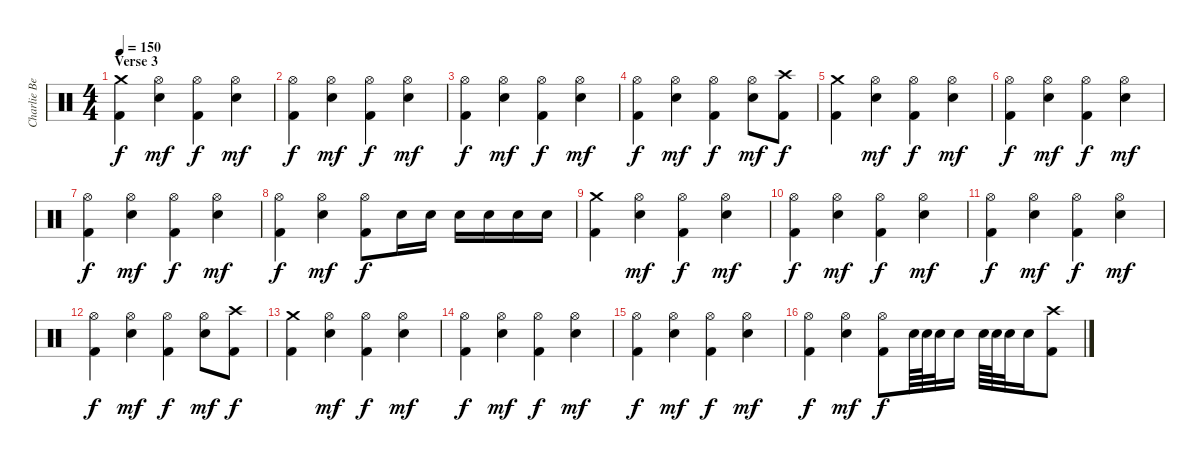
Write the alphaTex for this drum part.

\track ("Charlie Benante" "Charlie Be") {instrument percussion}
\staff {score}
\articulation defaults
\ts (4 4)
\section ("" "Verse 3")
\tempo 150
\clef neutral
\ks c
("Kick (hit) 2" "Crash medium (hit)").4{dy f} ("Hi-Hat (open)" "Snare (hit) 2").4{dy mf} ("Kick (hit) 2" "Hi-Hat (open)").4{dy f} ("Hi-Hat (open)" "Snare (hit) 2").4{dy mf} |
("Kick (hit) 2" "Hi-Hat (open)").4{dy f} ("Hi-Hat (open)" "Snare (hit) 2").4{dy mf} ("Kick (hit) 2" "Hi-Hat (open)").4{dy f} ("Hi-Hat (open)" "Snare (hit) 2").4{dy mf} |
("Kick (hit) 2" "Hi-Hat (open)").4{dy f} ("Hi-Hat (open)" "Snare (hit) 2").4{dy mf} ("Kick (hit) 2" "Hi-Hat (open)").4{dy f} ("Hi-Hat (open)" "Snare (hit) 2").4{dy mf} |
("Kick (hit) 2" "Hi-Hat (open)").4{dy f} ("Hi-Hat (open)" "Snare (hit) 2").4{dy mf} ("Kick (hit) 2" "Hi-Hat (open)").4{dy f} ("Hi-Hat (open)" "Snare (hit) 2").8{dy mf} ("Kick (hit) 2" "Crash high (hit)").8{dy f} |
("Kick (hit) 2" "Crash medium (hit)").4 ("Hi-Hat (open)" "Snare (hit) 2").4{dy mf} ("Kick (hit) 2" "Hi-Hat (open)").4{dy f} ("Hi-Hat (open)" "Snare (hit) 2").4{dy mf} |
("Kick (hit) 2" "Hi-Hat (open)").4{dy f} ("Hi-Hat (open)" "Snare (hit) 2").4{dy mf} ("Kick (hit) 2" "Hi-Hat (open)").4{dy f} ("Hi-Hat (open)" "Snare (hit) 2").4{dy mf} |
("Kick (hit) 2" "Hi-Hat (open)").4{dy f} ("Hi-Hat (open)" "Snare (hit) 2").4{dy mf} ("Kick (hit) 2" "Hi-Hat (open)").4{dy f} ("Hi-Hat (open)" "Snare (hit) 2").4{dy mf} |
("Kick (hit) 2" "Hi-Hat (open)").4{dy f} ("Hi-Hat (open)" "Snare (hit) 2").4{dy mf} ("Kick (hit) 2" "Hi-Hat (open)").8{dy f} "Snare (hit) 2".16 "Snare (hit) 2".16 "Snare (hit) 2".16 "Snare (hit) 2".16 "Snare (hit) 2".16 "Snare (hit) 2".16 |
("Kick (hit) 2" "Crash medium (hit)").4 ("Hi-Hat (open)" "Snare (hit) 2").4{dy mf} ("Kick (hit) 2" "Hi-Hat (open)").4{dy f} ("Hi-Hat (open)" "Snare (hit) 2").4{dy mf} |
("Kick (hit) 2" "Hi-Hat (open)").4{dy f} ("Hi-Hat (open)" "Snare (hit) 2").4{dy mf} ("Kick (hit) 2" "Hi-Hat (open)").4{dy f} ("Hi-Hat (open)" "Snare (hit) 2").4{dy mf} |
("Kick (hit) 2" "Hi-Hat (open)").4{dy f} ("Hi-Hat (open)" "Snare (hit) 2").4{dy mf} ("Kick (hit) 2" "Hi-Hat (open)").4{dy f} ("Hi-Hat (open)" "Snare (hit) 2").4{dy mf} |
("Kick (hit) 2" "Hi-Hat (open)").4{dy f} ("Hi-Hat (open)" "Snare (hit) 2").4{dy mf} ("Kick (hit) 2" "Hi-Hat (open)").4{dy f} ("Hi-Hat (open)" "Snare (hit) 2").8{dy mf} ("Kick (hit) 2" "Crash high (hit)").8{dy f} |
("Kick (hit) 2" "Crash medium (hit)").4 ("Hi-Hat (open)" "Snare (hit) 2").4{dy mf} ("Kick (hit) 2" "Hi-Hat (open)").4{dy f} ("Hi-Hat (open)" "Snare (hit) 2").4{dy mf} |
("Kick (hit) 2" "Hi-Hat (open)").4{dy f} ("Hi-Hat (open)" "Snare (hit) 2").4{dy mf} ("Kick (hit) 2" "Hi-Hat (open)").4{dy f} ("Hi-Hat (open)" "Snare (hit) 2").4{dy mf} |
("Kick (hit) 2" "Hi-Hat (open)").4{dy f} ("Hi-Hat (open)" "Snare (hit) 2").4{dy mf} ("Kick (hit) 2" "Hi-Hat (open)").4{dy f} ("Hi-Hat (open)" "Snare (hit) 2").4{dy mf} |
("Kick (hit) 2" "Hi-Hat (open)").4{dy f} ("Hi-Hat (open)" "Snare (hit) 2").4{dy mf} ("Kick (hit) 2" "Hi-Hat (open)").8{dy f} "Snare (hit) 2".64 "Snare (hit) 2".64 "Snare (hit)".32 "Snare (hit)".16 "Snare (hit) 2".64 "Snare (hit) 2".64 "Snare (hit)".32 "Snare (hit)".16 ("Kick (hit) 2" "Crash high (hit)").8
